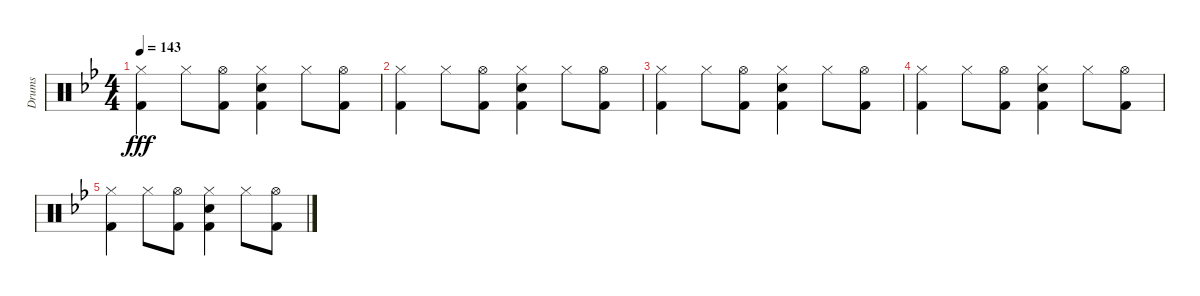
\track ("Drums" "Drums") {instrument percussion}
\staff {score}
\articulation defaults
\ts (4 4)
\tempo 143
\clef neutral
\ks bb
("Hi-Hat (closed)" "Kick (hit) 2").4{dy fff} "Hi-Hat (closed)".8 ("Hi-Hat (open)" "Kick (hit) 2").8 ("Hi-Hat (closed)" "Snare (hit) 2" "Kick (hit) 2").4 "Hi-Hat (closed)".8 ("Hi-Hat (open)" "Kick (hit) 2").8 |
("Hi-Hat (closed)" "Kick (hit) 2").4{volume 0} "Hi-Hat (closed)".8 ("Hi-Hat (open)" "Kick (hit) 2").8 ("Hi-Hat (closed)" "Snare (hit) 2" "Kick (hit) 2").4 "Hi-Hat (closed)".8 ("Hi-Hat (open)" "Kick (hit) 2").8 |
("Hi-Hat (closed)" "Kick (hit) 2").4 "Hi-Hat (closed)".8 ("Hi-Hat (open)" "Kick (hit) 2").8 ("Hi-Hat (closed)" "Snare (hit) 2" "Kick (hit) 2").4 "Hi-Hat (closed)".8 ("Hi-Hat (open)" "Kick (hit) 2").8 |
("Hi-Hat (closed)" "Kick (hit) 2").4 "Hi-Hat (closed)".8 ("Hi-Hat (open)" "Kick (hit) 2").8 ("Hi-Hat (closed)" "Snare (hit) 2" "Kick (hit) 2").4 "Hi-Hat (closed)".8 ("Hi-Hat (open)" "Kick (hit) 2").8 |
("Hi-Hat (closed)" "Kick (hit) 2").4 "Hi-Hat (closed)".8 ("Hi-Hat (open)" "Kick (hit) 2").8 ("Hi-Hat (closed)" "Snare (hit) 2" "Kick (hit) 2").4 "Hi-Hat (closed)".8 ("Hi-Hat (open)" "Kick (hit) 2").8
